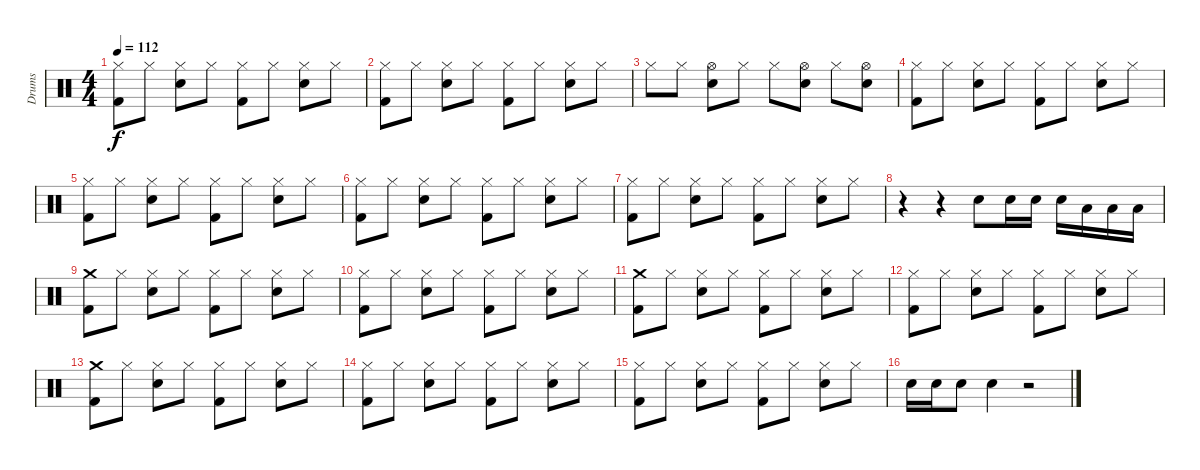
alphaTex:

\track ("Drums" "Drums") {instrument percussion}
\staff {score}
\articulation defaults
\ts (4 4)
\tempo 112
\clef neutral
\ks c
("Kick (hit) 2" "Hi-Hat (closed)").8{dy f} "Hi-Hat (closed)".8 ("Snare (hit) 2" "Hi-Hat (closed)").8 "Hi-Hat (closed)".8 ("Kick (hit) 2" "Hi-Hat (closed)").8 "Hi-Hat (closed)".8 ("Snare (hit) 2" "Hi-Hat (closed)").8 "Hi-Hat (closed)".8 |
("Kick (hit) 2" "Hi-Hat (closed)").8 "Hi-Hat (closed)".8 ("Snare (hit) 2" "Hi-Hat (closed)").8 "Hi-Hat (closed)".8 ("Kick (hit) 2" "Hi-Hat (closed)").8 "Hi-Hat (closed)".8 ("Snare (hit) 2" "Hi-Hat (closed)").8 "Hi-Hat (closed)".8 |
"Hi-Hat (closed)".8 "Hi-Hat (closed)".8 ("Snare (hit) 2" "Hi-Hat (open)").8 "Hi-Hat (closed)".8 "Hi-Hat (closed)".8 ("Snare (hit) 2" "Hi-Hat (open)").8 "Hi-Hat (closed)".8 ("Snare (hit) 2" "Hi-Hat (open)").8 |
("Kick (hit) 2" "Hi-Hat (closed)").8 "Hi-Hat (closed)".8 ("Snare (hit) 2" "Hi-Hat (closed)").8 "Hi-Hat (closed)".8 ("Kick (hit) 2" "Hi-Hat (closed)").8 "Hi-Hat (closed)".8 ("Snare (hit) 2" "Hi-Hat (closed)").8 "Hi-Hat (closed)".8 |
("Kick (hit) 2" "Hi-Hat (closed)").8 "Hi-Hat (closed)".8 ("Snare (hit) 2" "Hi-Hat (closed)").8 "Hi-Hat (closed)".8 ("Kick (hit) 2" "Hi-Hat (closed)").8 "Hi-Hat (closed)".8 ("Snare (hit) 2" "Hi-Hat (closed)").8 "Hi-Hat (closed)".8 |
("Kick (hit) 2" "Hi-Hat (closed)").8 "Hi-Hat (closed)".8 ("Snare (hit) 2" "Hi-Hat (closed)").8 "Hi-Hat (closed)".8 ("Kick (hit) 2" "Hi-Hat (closed)").8 "Hi-Hat (closed)".8 ("Snare (hit) 2" "Hi-Hat (closed)").8 "Hi-Hat (closed)".8 |
("Kick (hit) 2" "Hi-Hat (closed)").8 "Hi-Hat (closed)".8 ("Snare (hit) 2" "Hi-Hat (closed)").8 "Hi-Hat (closed)".8 ("Kick (hit) 2" "Hi-Hat (closed)").8 "Hi-Hat (closed)".8 ("Snare (hit) 2" "Hi-Hat (closed)").8 "Hi-Hat (closed)".8 |
r.4 r.4 "Snare (hit) 2".8 "Snare (hit) 2".16 "Snare (hit) 2".16 "Snare (hit) 2".16 "Low Tom (hit)".16 "Low Tom (hit)".16 "Low Tom (hit)".16 |
("Kick (hit) 2" "Crash medium (hit)").8 "Hi-Hat (closed)".8 ("Snare (hit) 2" "Hi-Hat (closed)").8 "Hi-Hat (closed)".8 ("Kick (hit) 2" "Hi-Hat (closed)").8 "Hi-Hat (closed)".8 ("Snare (hit) 2" "Hi-Hat (closed)").8 "Hi-Hat (closed)".8 |
("Kick (hit) 2" "Hi-Hat (closed)").8 "Hi-Hat (closed)".8 ("Snare (hit) 2" "Hi-Hat (closed)").8 "Hi-Hat (closed)".8 ("Kick (hit) 2" "Hi-Hat (closed)").8 "Hi-Hat (closed)".8 ("Snare (hit) 2" "Hi-Hat (closed)").8 "Hi-Hat (closed)".8 |
("Kick (hit) 2" "Crash medium (hit)").8 "Hi-Hat (closed)".8 ("Snare (hit) 2" "Hi-Hat (closed)").8 "Hi-Hat (closed)".8 ("Kick (hit) 2" "Hi-Hat (closed)").8 "Hi-Hat (closed)".8 ("Snare (hit) 2" "Hi-Hat (closed)").8 "Hi-Hat (closed)".8 |
("Kick (hit) 2" "Hi-Hat (closed)").8 "Hi-Hat (closed)".8 ("Snare (hit) 2" "Hi-Hat (closed)").8 "Hi-Hat (closed)".8 ("Kick (hit) 2" "Hi-Hat (closed)").8 "Hi-Hat (closed)".8 ("Snare (hit) 2" "Hi-Hat (closed)").8 "Hi-Hat (closed)".8 |
("Kick (hit) 2" "Crash medium (hit)").8 "Hi-Hat (closed)".8 ("Snare (hit) 2" "Hi-Hat (closed)").8 "Hi-Hat (closed)".8 ("Kick (hit) 2" "Hi-Hat (closed)").8 "Hi-Hat (closed)".8 ("Snare (hit) 2" "Hi-Hat (closed)").8 "Hi-Hat (closed)".8 |
("Kick (hit) 2" "Hi-Hat (closed)").8 "Hi-Hat (closed)".8 ("Snare (hit) 2" "Hi-Hat (closed)").8 "Hi-Hat (closed)".8 ("Kick (hit) 2" "Hi-Hat (closed)").8 "Hi-Hat (closed)".8 ("Snare (hit) 2" "Hi-Hat (closed)").8 "Hi-Hat (closed)".8 |
("Kick (hit) 2" "Hi-Hat (closed)").8 "Hi-Hat (closed)".8 ("Snare (hit) 2" "Hi-Hat (closed)").8 "Hi-Hat (closed)".8 ("Kick (hit) 2" "Hi-Hat (closed)").8 "Hi-Hat (closed)".8 ("Snare (hit) 2" "Hi-Hat (closed)").8 "Hi-Hat (closed)".8 |
"Snare (hit) 2".16 "Snare (hit) 2".16 "Snare (hit) 2".8 "Snare (hit) 2".4 r.2
